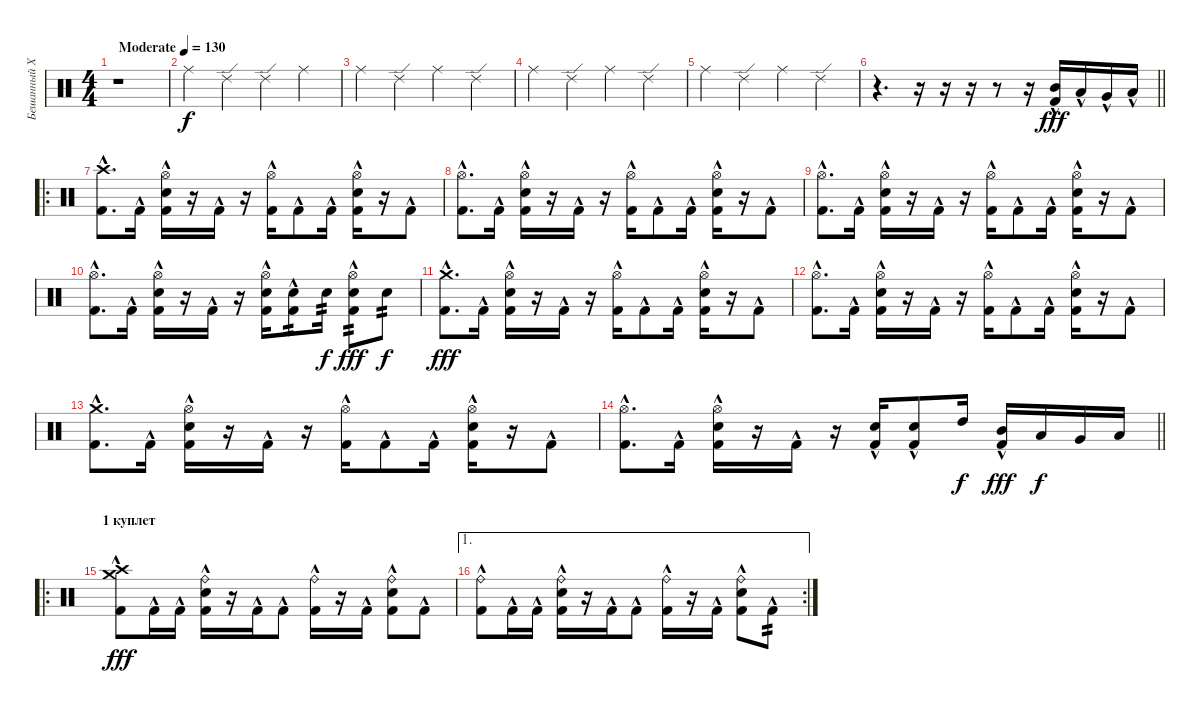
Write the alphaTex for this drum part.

\track ("Бешанный Харек" "Бешанный Х") {instrument percussion}
\staff {score}
\articulation defaults
\ts (4 4)
\tempo (130 "Moderate")
\clef neutral
\ks c
r.1{dy f} |
"Ride (middle)".4 "Ride (edge) 2".4 "Ride (edge) 2".4 "Ride (middle)".4 |
"Ride (middle)".4 "Ride (edge) 2".4 "Ride (middle)".4 "Ride (edge) 2".4 |
"Ride (middle)".4 "Ride (edge) 2".4 "Ride (middle)".4 "Ride (edge) 2".4 |
"Ride (middle)".4 "Ride (edge) 2".4 "Ride (middle)".4 "Ride (edge) 2".4 |
\barLineRight lightlight
r.4{d} r.16 r.16 r.16 r.8 r.16 ("Kick (hit) 2"{hac} "Mid Tom (hit)"{hac}).16{dy fff} "Low Tom (hit)"{hac}.16 "Very Low Tom (hit)"{hac}.16 "Low Floor Tom (hit)"{hac}.16 |
\ro
("Kick (hit) 2"{hac} "Crash high (hit)").8{d} "Kick (hit) 2"{hac}.16 ("Kick (hit) 2"{hac} "Snare (hit) 2" "Hi-Hat (open)").16 r.16 "Kick (hit) 2"{hac}.16 r.16 ("Kick (hit) 2"{hac} "Hi-Hat (open)").16 "Kick (hit) 2"{hac}.8 "Kick (hit) 2"{hac}.16 ("Kick (hit) 2"{hac} "Snare (hit) 2" "Hi-Hat (open)").16 r.16 "Kick (hit) 2"{hac}.8 |
("Kick (hit) 2"{hac} "Hi-Hat (open)").8{d} "Kick (hit) 2"{hac}.16 ("Kick (hit) 2"{hac} "Snare (hit) 2" "Hi-Hat (open)").16 r.16 "Kick (hit) 2"{hac}.16 r.16 ("Kick (hit) 2"{hac} "Hi-Hat (open)").16 "Kick (hit) 2"{hac}.8 "Kick (hit) 2"{hac}.16 ("Kick (hit) 2"{hac} "Snare (hit) 2" "Hi-Hat (open)").16 r.16 "Kick (hit) 2"{hac}.8 |
("Kick (hit) 2"{hac} "Hi-Hat (open)").8{d} "Kick (hit) 2"{hac}.16 ("Kick (hit) 2"{hac} "Snare (hit) 2" "Hi-Hat (open)").16 r.16 "Kick (hit) 2"{hac}.16 r.16 ("Kick (hit) 2"{hac} "Hi-Hat (open)").16 "Kick (hit) 2"{hac}.8 "Kick (hit) 2"{hac}.16 ("Kick (hit) 2"{hac} "Snare (hit) 2" "Hi-Hat (open)").16 r.16 "Kick (hit) 2"{hac}.8 |
("Kick (hit) 2"{hac} "Hi-Hat (open)").8{d} "Kick (hit) 2"{hac}.16 ("Kick (hit) 2"{hac} "Snare (hit) 2" "Hi-Hat (open)").16 r.16 "Kick (hit) 2"{hac}.16 r.16 ("Kick (hit) 2"{hac} "Snare (hit) 2" "Hi-Hat (open)").16 ("Kick (hit) 2"{hac} "Snare (hit) 2").8{tp 2} "Snare (hit) 2".16{tp 2 dy f} ("Kick (hit) 2"{hac} "Snare (hit) 2" "Hi-Hat (open)").8{tp 2 dy fff} "Snare (hit) 2".8{tp 2 dy f} |
("Kick (hit) 2"{hac} "Crash medium (hit)").8{d dy fff} "Kick (hit) 2"{hac}.16 ("Kick (hit) 2"{hac} "Snare (hit) 2" "Hi-Hat (open)").16 r.16 "Kick (hit) 2"{hac}.16 r.16 ("Kick (hit) 2"{hac} "Hi-Hat (open)").16 "Kick (hit) 2"{hac}.8 "Kick (hit) 2"{hac}.16 ("Kick (hit) 2"{hac} "Snare (hit) 2" "Hi-Hat (open)").16 r.16 "Kick (hit) 2"{hac}.8 |
("Kick (hit) 2"{hac} "Hi-Hat (open)").8{d} "Kick (hit) 2"{hac}.16 ("Kick (hit) 2"{hac} "Snare (hit) 2" "Hi-Hat (open)").16 r.16 "Kick (hit) 2"{hac}.16 r.16 ("Kick (hit) 2"{hac} "Hi-Hat (open)").16 "Kick (hit) 2"{hac}.8 "Kick (hit) 2"{hac}.16 ("Kick (hit) 2"{hac} "Snare (hit) 2" "Hi-Hat (open)").16 r.16 "Kick (hit) 2"{hac}.8 |
("Kick (hit) 2"{hac} "Crash medium (hit)").8{d} "Kick (hit) 2"{hac}.16 ("Kick (hit) 2"{hac} "Snare (hit) 2" "Hi-Hat (open)").16 r.16 "Kick (hit) 2"{hac}.16 r.16 ("Kick (hit) 2"{hac} "Hi-Hat (open)").16 "Kick (hit) 2"{hac}.8 "Kick (hit) 2"{hac}.16 ("Kick (hit) 2"{hac} "Snare (hit) 2" "Hi-Hat (open)").16 r.16 "Kick (hit) 2"{hac}.8 |
\barLineRight lightlight
("Kick (hit) 2"{hac} "Hi-Hat (open)").8{d} "Kick (hit) 2"{hac}.16 ("Kick (hit) 2"{hac} "Snare (hit) 2" "Hi-Hat (open)").16 r.16 "Kick (hit) 2"{hac}.16 r.16 ("Kick (hit) 2"{hac} "Snare (hit) 2").16 ("Kick (hit) 2"{hac} "Snare (hit) 2").8 "High Tom (hit)".16{dy f} ("Kick (hit) 2"{hac} "Mid Tom (hit)").16{dy fff} "Low Tom (hit)".16{dy f} "Very Low Tom (hit)".16 "Low Floor Tom (hit)".16 |
\ro
\section ("" "1 куплет")
("Kick (hit) 2"{hac} "Crash high (hit)" "Crash medium (hit)").8{dy fff} "Kick (hit) 2"{hac}.16 "Kick (hit) 2"{hac}.16 ("Kick (hit) 2"{hac} "Snare (hit) 2" "Ride (bell)").16 r.16 "Kick (hit) 2"{hac}.16 "Kick (hit) 2"{hac}.8 ("Kick (hit) 2"{hac} "Ride (bell)").16 r.16 "Kick (hit) 2"{hac}.16 ("Kick (hit) 2"{hac} "Snare (hit) 2" "Ride (bell)").8 "Kick (hit) 2"{hac}.8 |
\ae 1
\rc 2
("Kick (hit) 2"{hac} "Ride (bell)").8 "Kick (hit) 2"{hac}.16 "Kick (hit) 2"{hac}.16 ("Kick (hit) 2"{hac} "Snare (hit) 2" "Ride (bell)").16 r.16 "Kick (hit) 2"{hac}.16 "Kick (hit) 2"{hac}.8 ("Kick (hit) 2"{hac} "Ride (bell)").16 r.16 "Kick (hit) 2"{hac}.16 ("Kick (hit) 2"{hac} "Snare (hit) 2" "Ride (bell)").8 "Kick (hit) 2"{hac}.8{tp 2}
